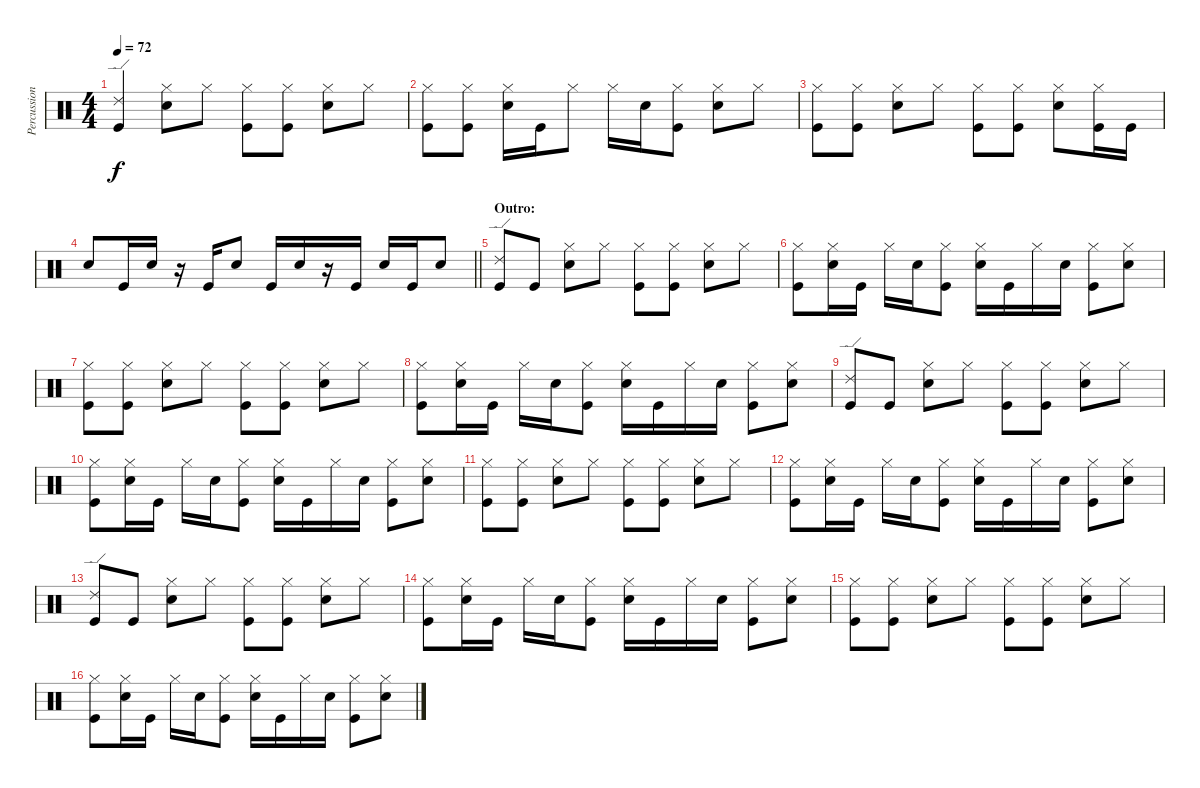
\track ("Percussions" "Percussion") {instrument percussion}
\staff {score}
\articulation defaults
\ts (4 4)
\tempo 72
\clef neutral
\ks c
("Ride (edge) 2" "Kick (hit)").4{dy f} ("Hi-Hat (closed)" "Snare (hit) 2").8 "Hi-Hat (closed)".8 ("Hi-Hat (closed)" "Kick (hit)").8 ("Hi-Hat (closed)" "Kick (hit)").8 ("Hi-Hat (closed)" "Snare (hit) 2").8 "Hi-Hat (closed)".8 |
("Hi-Hat (closed)" "Kick (hit)").8 ("Hi-Hat (closed)" "Kick (hit)").8 ("Hi-Hat (closed)" "Snare (hit) 2").16 "Kick (hit)".16 "Hi-Hat (closed)".8 "Hi-Hat (closed)".16 "Snare (hit) 2".16 ("Hi-Hat (closed)" "Kick (hit)").8 ("Hi-Hat (closed)" "Snare (hit) 2").8 "Hi-Hat (closed)".8 |
("Hi-Hat (closed)" "Kick (hit)").8 ("Hi-Hat (closed)" "Kick (hit)").8 ("Hi-Hat (closed)" "Snare (hit) 2").8 "Hi-Hat (closed)".8 ("Hi-Hat (closed)" "Kick (hit)").8 ("Hi-Hat (closed)" "Kick (hit)").8 ("Hi-Hat (closed)" "Snare (hit) 2").8 ("Hi-Hat (closed)" "Kick (hit)").16 "Kick (hit)".16 |
\barLineRight lightlight "Snare (hit) 2".8 "Kick (hit)".16 "Snare (hit) 2".16
r.16 "Kick (hit)".16 "Snare (hit) 2".8 "Kick (hit)".16 "Snare (hit) 2".16 r.16 "Kick (hit)".16 "Snare (hit) 2".16 "Kick (hit)".16 "Snare (hit) 2".8 |
\section ("" "Outro:")
("Ride (edge) 2" "Kick (hit)").8 "Kick (hit)".8 ("Hi-Hat (closed)" "Snare (hit) 2").8 "Hi-Hat (closed)".8 ("Hi-Hat (closed)" "Kick (hit)").8 ("Hi-Hat (closed)" "Kick (hit)").8 ("Hi-Hat (closed)" "Snare (hit) 2").8 "Hi-Hat (closed)".8 |
("Hi-Hat (closed)" "Kick (hit)").8 ("Hi-Hat (closed)" "Snare (hit) 2").16 "Kick (hit)".16 "Hi-Hat (closed)".16 "Snare (hit) 2".16 ("Hi-Hat (closed)" "Kick (hit)").8 ("Hi-Hat (closed)" "Snare (hit) 2").16 "Kick (hit)".16 "Hi-Hat (closed)".16 "Snare (hit) 2".16 ("Hi-Hat (closed)" "Kick (hit)").8 ("Hi-Hat (closed)" "Snare (hit) 2").8 |
("Hi-Hat (closed)" "Kick (hit)").8 ("Hi-Hat (closed)" "Kick (hit)").8 ("Hi-Hat (closed)" "Snare (hit) 2").8 "Hi-Hat (closed)".8 ("Hi-Hat (closed)" "Kick (hit)").8 ("Hi-Hat (closed)" "Kick (hit)").8 ("Hi-Hat (closed)" "Snare (hit) 2").8 "Hi-Hat (closed)".8 |
("Hi-Hat (closed)" "Kick (hit)").8 ("Hi-Hat (closed)" "Snare (hit) 2").16 "Kick (hit)".16 "Hi-Hat (closed)".16 "Snare (hit) 2".16 ("Hi-Hat (closed)" "Kick (hit)").8 ("Hi-Hat (closed)" "Snare (hit) 2").16 "Kick (hit)".16 "Hi-Hat (closed)".16 "Snare (hit) 2".16 ("Hi-Hat (closed)" "Kick (hit)").8 ("Hi-Hat (closed)" "Snare (hit) 2").8 |
("Ride (edge) 2" "Kick (hit)").8 "Kick (hit)".8 ("Hi-Hat (closed)" "Snare (hit) 2").8 "Hi-Hat (closed)".8 ("Hi-Hat (closed)" "Kick (hit)").8 ("Hi-Hat (closed)" "Kick (hit)").8 ("Hi-Hat (closed)" "Snare (hit) 2").8 "Hi-Hat (closed)".8 |
("Hi-Hat (closed)" "Kick (hit)").8 ("Hi-Hat (closed)" "Snare (hit) 2").16 "Kick (hit)".16 "Hi-Hat (closed)".16 "Snare (hit) 2".16 ("Hi-Hat (closed)" "Kick (hit)").8 ("Hi-Hat (closed)" "Snare (hit) 2").16 "Kick (hit)".16 "Hi-Hat (closed)".16 "Snare (hit) 2".16 ("Hi-Hat (closed)" "Kick (hit)").8 ("Hi-Hat (closed)" "Snare (hit) 2").8 |
("Hi-Hat (closed)" "Kick (hit)").8 ("Hi-Hat (closed)" "Kick (hit)").8 ("Hi-Hat (closed)" "Snare (hit) 2").8 "Hi-Hat (closed)".8 ("Hi-Hat (closed)" "Kick (hit)").8 ("Hi-Hat (closed)" "Kick (hit)").8 ("Hi-Hat (closed)" "Snare (hit) 2").8 "Hi-Hat (closed)".8 |
("Hi-Hat (closed)" "Kick (hit)").8 ("Hi-Hat (closed)" "Snare (hit) 2").16 "Kick (hit)".16 "Hi-Hat (closed)".16 "Snare (hit) 2".16 ("Hi-Hat (closed)" "Kick (hit)").8 ("Hi-Hat (closed)" "Snare (hit) 2").16 "Kick (hit)".16 "Hi-Hat (closed)".16 "Snare (hit) 2".16 ("Hi-Hat (closed)" "Kick (hit)").8 ("Hi-Hat (closed)" "Snare (hit) 2").8 |
("Ride (edge) 2" "Kick (hit)").8 "Kick (hit)".8 ("Hi-Hat (closed)" "Snare (hit) 2").8 "Hi-Hat (closed)".8 ("Hi-Hat (closed)" "Kick (hit)").8 ("Hi-Hat (closed)" "Kick (hit)").8 ("Hi-Hat (closed)" "Snare (hit) 2").8 "Hi-Hat (closed)".8 |
("Hi-Hat (closed)" "Kick (hit)").8 ("Hi-Hat (closed)" "Snare (hit) 2").16 "Kick (hit)".16 "Hi-Hat (closed)".16 "Snare (hit) 2".16 ("Hi-Hat (closed)" "Kick (hit)").8 ("Hi-Hat (closed)" "Snare (hit) 2").16 "Kick (hit)".16 "Hi-Hat (closed)".16 "Snare (hit) 2".16 ("Hi-Hat (closed)" "Kick (hit)").8 ("Hi-Hat (closed)" "Snare (hit) 2").8 |
("Hi-Hat (closed)" "Kick (hit)").8 ("Hi-Hat (closed)" "Kick (hit)").8 ("Hi-Hat (closed)" "Snare (hit) 2").8 "Hi-Hat (closed)".8 ("Hi-Hat (closed)" "Kick (hit)").8 ("Hi-Hat (closed)" "Kick (hit)").8 ("Hi-Hat (closed)" "Snare (hit) 2").8 "Hi-Hat (closed)".8 |
("Hi-Hat (closed)" "Kick (hit)").8 ("Hi-Hat (closed)" "Snare (hit) 2").16 "Kick (hit)".16 "Hi-Hat (closed)".16 "Snare (hit) 2".16 ("Hi-Hat (closed)" "Kick (hit)").8 ("Hi-Hat (closed)" "Snare (hit) 2").16 "Kick (hit)".16 "Hi-Hat (closed)".16 "Snare (hit) 2".16 ("Hi-Hat (closed)" "Kick (hit)").8 ("Hi-Hat (closed)" "Snare (hit) 2").8
